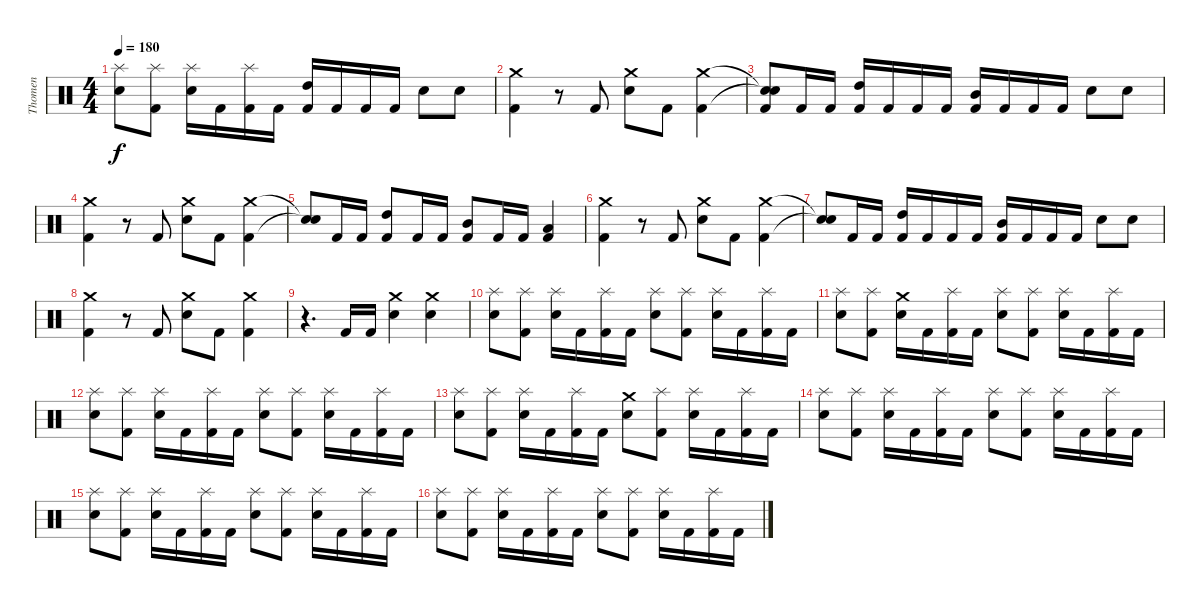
\track ("Thomen" "Thomen") {instrument percussion}
\staff {score}
\articulation defaults
\ts (4 4)
\tempo 180
\clef neutral
\ks c
("Splash (hit)" "Electric Snare (hit)").8{dy f} ("Splash (hit)" "Kick (hit) 2").8 ("Splash (hit)" "Electric Snare (hit)").16 "Kick (hit) 2".16 ("Splash (hit)" "Kick (hit) 2").16 "Kick (hit) 2".16 ("High Tom (hit)" "Kick (hit) 2").16 "Kick (hit) 2".16 "Kick (hit) 2".16 "Kick (hit) 2".16 "Electric Snare (hit)".8 "Electric Snare (hit)".8 |
("Kick (hit) 2" "Crash medium (hit)").4 r.8 "Kick (hit) 2".8 ("Crash medium (hit)" "Electric Snare (hit)").8 "Kick (hit) 2".8 ("Crash medium (hit)" "Kick (hit) 2").4 |
("Snare (hit)"{t} "Snare (hit)"{t} "Kick (hit) 2").8 "Kick (hit) 2".16 "Kick (hit) 2".16 ("High Tom (hit)" "Kick (hit) 2").16 "Kick (hit) 2".16 "Kick (hit) 2".16 "Kick (hit) 2".16 ("Mid Tom (hit)" "Kick (hit) 2").16 "Kick (hit) 2".16 "Kick (hit) 2".16 "Kick (hit) 2".16 "Electric Snare (hit)".8 "Electric Snare (hit)".8 |
("Kick (hit) 2" "Crash medium (hit)").4 r.8 "Kick (hit) 2".8 ("Crash medium (hit)" "Electric Snare (hit)").8 "Kick (hit) 2".8 ("Crash medium (hit)" "Kick (hit) 2").4 |
("Snare (hit)"{t} "Snare (hit)"{t}).8 "Kick (hit) 2".16 "Kick (hit) 2".16 ("Kick (hit) 2" "High Tom (hit)").8 "Kick (hit) 2".16 "Kick (hit) 2".16 ("Kick (hit) 2" "Mid Tom (hit)").8 "Kick (hit) 2".16 "Kick (hit) 2".16 ("Kick (hit) 2" "Low Tom (hit)").4 |
("Kick (hit) 2" "Crash medium (hit)").4 r.8 "Kick (hit) 2".8 ("Crash medium (hit)" "Electric Snare (hit)").8 "Kick (hit) 2".8 ("Crash medium (hit)" "Kick (hit) 2").4 |
("Snare (hit)"{t} "Snare (hit)"{t}).8 "Kick (hit) 2".16 "Kick (hit) 2".16 ("High Tom (hit)" "Kick (hit) 2").16 "Kick (hit) 2".16 "Kick (hit) 2".16 "Kick (hit) 2".16 ("Mid Tom (hit)" "Kick (hit) 2").16 "Kick (hit) 2".16 "Kick (hit) 2".16 "Kick (hit) 2".16 "Electric Snare (hit)".8 "Electric Snare (hit)".8 |
("Kick (hit) 2" "Crash medium (hit)").4 r.8 "Kick (hit) 2".8 ("Crash medium (hit)" "Electric Snare (hit)").8 "Kick (hit) 2".8 ("Crash medium (hit)" "Kick (hit) 2").4 |
r.4{d} "Kick (hit) 2".16 "Kick (hit) 2".16 ("Crash medium (hit)" "Electric Snare (hit)").4 ("Crash medium (hit)" "Electric Snare (hit)").4 |
("Splash (hit)" "Electric Snare (hit)").8 ("Splash (hit)" "Kick (hit) 2").8 ("Splash (hit)" "Electric Snare (hit)").16 "Kick (hit) 2".16 ("Splash (hit)" "Kick (hit) 2").16 "Kick (hit) 2".16 ("Splash (hit)" "Electric Snare (hit)").8 ("Splash (hit)" "Kick (hit) 2").8 ("Splash (hit)" "Electric Snare (hit)").16 "Kick (hit) 2".16 ("Splash (hit)" "Kick (hit) 2").16 "Kick (hit) 2".16 |
("Splash (hit)" "Electric Snare (hit)").8 ("Splash (hit)" "Kick (hit) 2").8 ("Crash medium (hit)" "Electric Snare (hit)").16 "Kick (hit) 2".16 ("Splash (hit)" "Kick (hit) 2").16 "Kick (hit) 2".16 ("Splash (hit)" "Electric Snare (hit)").8 ("Splash (hit)" "Kick (hit) 2").8 ("Splash (hit)" "Electric Snare (hit)").16 "Kick (hit) 2".16 ("Splash (hit)" "Kick (hit) 2").16 "Kick (hit) 2".16 |
("Splash (hit)" "Electric Snare (hit)").8 ("Splash (hit)" "Kick (hit) 2").8 ("Splash (hit)" "Electric Snare (hit)").16 "Kick (hit) 2".16 ("Splash (hit)" "Kick (hit) 2").16 "Kick (hit) 2".16 ("Splash (hit)" "Electric Snare (hit)").8 ("Splash (hit)" "Kick (hit) 2").8 ("Splash (hit)" "Electric Snare (hit)").16 "Kick (hit) 2".16 ("Splash (hit)" "Kick (hit) 2").16 "Kick (hit) 2".16 |
("Splash (hit)" "Electric Snare (hit)").8 ("Splash (hit)" "Kick (hit) 2").8 ("Splash (hit)" "Electric Snare (hit)").16 "Kick (hit) 2".16 ("Splash (hit)" "Kick (hit) 2").16 "Kick (hit) 2".16 ("Crash medium (hit)" "Electric Snare (hit)").8 ("Splash (hit)" "Kick (hit) 2").8 ("Splash (hit)" "Electric Snare (hit)").16 "Kick (hit) 2".16 ("Splash (hit)" "Kick (hit) 2").16 "Kick (hit) 2".16 |
("Splash (hit)" "Electric Snare (hit)").8 ("Splash (hit)" "Kick (hit) 2").8 ("Splash (hit)" "Electric Snare (hit)").16 "Kick (hit) 2".16 ("Splash (hit)" "Kick (hit) 2").16 "Kick (hit) 2".16 ("Splash (hit)" "Electric Snare (hit)").8 ("Splash (hit)" "Kick (hit) 2").8 ("Splash (hit)" "Electric Snare (hit)").16 "Kick (hit) 2".16 ("Splash (hit)" "Kick (hit) 2").16 "Kick (hit) 2".16 |
("Splash (hit)" "Electric Snare (hit)").8 ("Splash (hit)" "Kick (hit) 2").8 ("Splash (hit)" "Electric Snare (hit)").16 "Kick (hit) 2".16 ("Splash (hit)" "Kick (hit) 2").16 "Kick (hit) 2".16 ("Splash (hit)" "Electric Snare (hit)").8 ("Splash (hit)" "Kick (hit) 2").8 ("Splash (hit)" "Electric Snare (hit)").16 "Kick (hit) 2".16 ("Splash (hit)" "Kick (hit) 2").16 "Kick (hit) 2".16 |
("Splash (hit)" "Electric Snare (hit)").8 ("Splash (hit)" "Kick (hit) 2").8 ("Splash (hit)" "Electric Snare (hit)").16 "Kick (hit) 2".16 ("Splash (hit)" "Kick (hit) 2").16 "Kick (hit) 2".16 ("Splash (hit)" "Electric Snare (hit)").8 ("Splash (hit)" "Kick (hit) 2").8 ("Splash (hit)" "Electric Snare (hit)").16 "Kick (hit) 2".16 ("Splash (hit)" "Kick (hit) 2").16 "Kick (hit) 2".16
